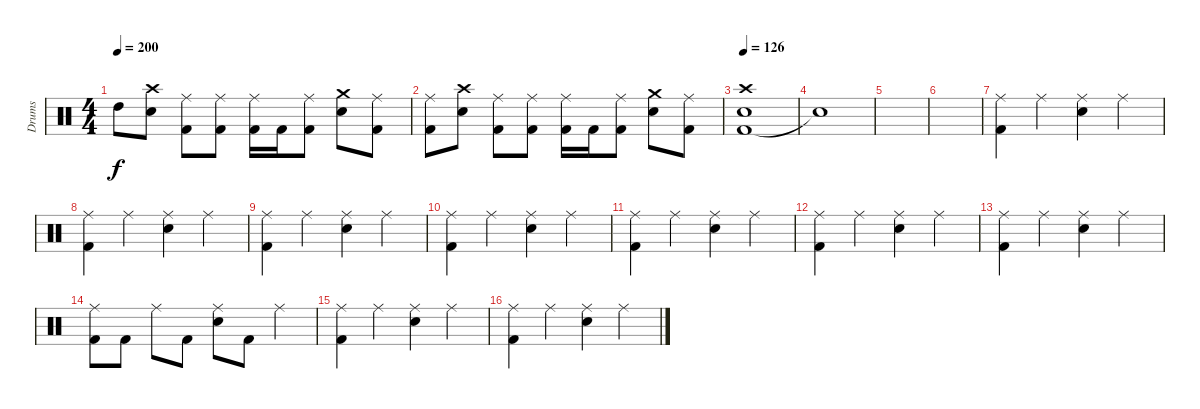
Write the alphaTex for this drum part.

\track ("Drums" "Drums") {instrument percussion}
\staff {score}
\articulation defaults
\ts (4 4)
\tempo 200
\clef neutral
\ks c "High Tom (hit)".8{dy f}
("Snare (hit) 2" "Crash high (hit)").8 ("Kick (hit) 2" "Ride (middle)").8 ("Kick (hit) 2" "Ride (middle)").8 ("Kick (hit) 2" "Ride (middle)").16 "Kick (hit) 2".16 ("Kick (hit) 2" "Ride (middle)").8 ("Snare (hit) 2" "Crash medium (hit)").8 ("Kick (hit) 2" "Ride (middle)").8 |
("Kick (hit) 2" "Ride (middle)").8 ("Snare (hit) 2" "Crash high (hit)").8 ("Kick (hit) 2" "Ride (middle)").8 ("Kick (hit) 2" "Ride (middle)").8 ("Kick (hit) 2" "Ride (middle)").16 "Kick (hit) 2".16 ("Kick (hit) 2" "Ride (middle)").8 ("Snare (hit) 2" "Crash medium (hit)").8 ("Kick (hit) 2" "Ride (middle)").8 |
\tempo 126
("Kick (hit) 2" "Snare (hit) 2" "Crash high (hit)").1 |
"Snare (hit)"{t}.1 |
|
|
("Kick (hit) 2" "Ride (middle)").4 "Ride (middle)".4 ("Snare (hit) 2" "Ride (middle)").4 "Ride (middle)".4 |
("Kick (hit) 2" "Ride (middle)").4 "Ride (middle)".4 ("Snare (hit) 2" "Ride (middle)").4 "Ride (middle)".4 |
("Kick (hit) 2" "Ride (middle)").4 "Ride (middle)".4 ("Snare (hit) 2" "Ride (middle)").4 "Ride (middle)".4 |
("Kick (hit) 2" "Ride (middle)").4 "Ride (middle)".4 ("Snare (hit) 2" "Ride (middle)").4 "Ride (middle)".4 |
("Kick (hit) 2" "Ride (middle)").4 "Ride (middle)".4 ("Snare (hit) 2" "Ride (middle)").4 "Ride (middle)".4 |
("Kick (hit) 2" "Ride (middle)").4 "Ride (middle)".4 ("Snare (hit) 2" "Ride (middle)").4 "Ride (middle)".4 |
("Kick (hit) 2" "Ride (middle)").4 "Ride (middle)".4 ("Snare (hit) 2" "Ride (middle)").4 "Ride (middle)".4 |
("Kick (hit) 2" "Ride (middle)").8 "Kick (hit) 2".8 "Ride (middle)".8 "Kick (hit) 2".8 ("Snare (hit) 2" "Ride (middle)").8 "Kick (hit) 2".8 "Ride (middle)".4 |
("Kick (hit) 2" "Ride (middle)").4 "Ride (middle)".4 ("Snare (hit) 2" "Ride (middle)").4 "Ride (middle)".4 |
("Kick (hit) 2" "Ride (middle)").4 "Ride (middle)".4 ("Snare (hit) 2" "Ride (middle)").4 "Ride (middle)".4
